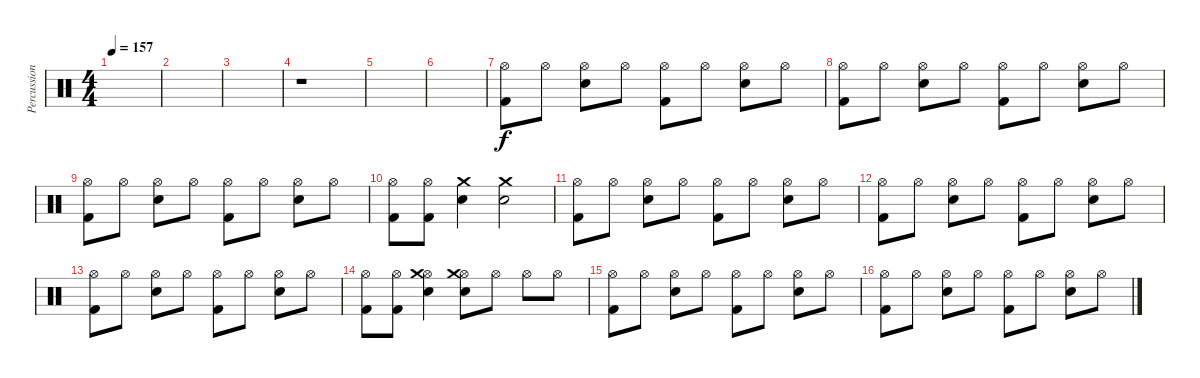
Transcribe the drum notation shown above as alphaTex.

\track ("Percussion" "Percussion") {instrument percussion}
\staff {score}
\articulation defaults
\ts (4 4)
\tempo 157
\clef neutral
\ks c
|
|
|
r.1 |
|
|
("Hi-Hat (open)" "Kick (hit) 2").8 "Hi-Hat (open)".8 ("Hi-Hat (open)" "Snare (hit) 2").8 "Hi-Hat (open)".8 ("Hi-Hat (open)" "Kick (hit) 2").8 "Hi-Hat (open)".8 ("Hi-Hat (open)" "Snare (hit) 2").8 "Hi-Hat (open)".8 |
("Hi-Hat (open)" "Kick (hit) 2").8 "Hi-Hat (open)".8 ("Hi-Hat (open)" "Snare (hit) 2").8 "Hi-Hat (open)".8 ("Hi-Hat (open)" "Kick (hit) 2").8 "Hi-Hat (open)".8 ("Hi-Hat (open)" "Snare (hit) 2").8 "Hi-Hat (open)".8 |
("Hi-Hat (open)" "Kick (hit) 2").8 "Hi-Hat (open)".8 ("Hi-Hat (open)" "Snare (hit) 2").8 "Hi-Hat (open)".8 ("Hi-Hat (open)" "Kick (hit) 2").8 "Hi-Hat (open)".8 ("Hi-Hat (open)" "Snare (hit) 2").8 "Hi-Hat (open)".8 |
("Hi-Hat (open)" "Kick (hit) 2").8 ("Hi-Hat (open)" "Kick (hit) 2").8 ("Crash medium (hit)" "Snare (hit) 2").4 ("Crash medium (hit)" "Snare (hit) 2").2 |
("Hi-Hat (open)" "Kick (hit) 2").8 "Hi-Hat (open)".8 ("Hi-Hat (open)" "Snare (hit) 2").8 "Hi-Hat (open)".8 ("Hi-Hat (open)" "Kick (hit) 2").8 "Hi-Hat (open)".8 ("Hi-Hat (open)" "Snare (hit) 2").8 "Hi-Hat (open)".8 |
("Hi-Hat (open)" "Kick (hit) 2").8 "Hi-Hat (open)".8 ("Hi-Hat (open)" "Snare (hit) 2").8 "Hi-Hat (open)".8 ("Hi-Hat (open)" "Kick (hit) 2").8 "Hi-Hat (open)".8 ("Hi-Hat (open)" "Snare (hit) 2").8 "Hi-Hat (open)".8 |
("Hi-Hat (open)" "Kick (hit) 2").8 "Hi-Hat (open)".8 ("Hi-Hat (open)" "Snare (hit) 2").8 "Hi-Hat (open)".8 ("Hi-Hat (open)" "Kick (hit) 2").8 "Hi-Hat (open)".8 ("Hi-Hat (open)" "Snare (hit) 2").8 "Hi-Hat (open)".8 |
("Hi-Hat (open)" "Kick (hit) 2").8 ("Hi-Hat (open)" "Kick (hit) 2").8 ("Hi-Hat (open)" "Crash medium (hit)" "Snare (hit) 2").4 ("Hi-Hat (open)" "Crash medium (hit)" "Snare (hit) 2").8 "Hi-Hat (open)".8 "Hi-Hat (open)".8 "Hi-Hat (open)".8 |
("Hi-Hat (open)" "Kick (hit) 2").8 "Hi-Hat (open)".8 ("Hi-Hat (open)" "Snare (hit) 2").8 "Hi-Hat (open)".8 ("Hi-Hat (open)" "Kick (hit) 2").8 "Hi-Hat (open)".8 ("Hi-Hat (open)" "Snare (hit) 2").8 "Hi-Hat (open)".8 |
("Hi-Hat (open)" "Kick (hit) 2").8 "Hi-Hat (open)".8 ("Hi-Hat (open)" "Snare (hit) 2").8 "Hi-Hat (open)".8 ("Hi-Hat (open)" "Kick (hit) 2").8 "Hi-Hat (open)".8 ("Hi-Hat (open)" "Snare (hit) 2").8 "Hi-Hat (open)".8
